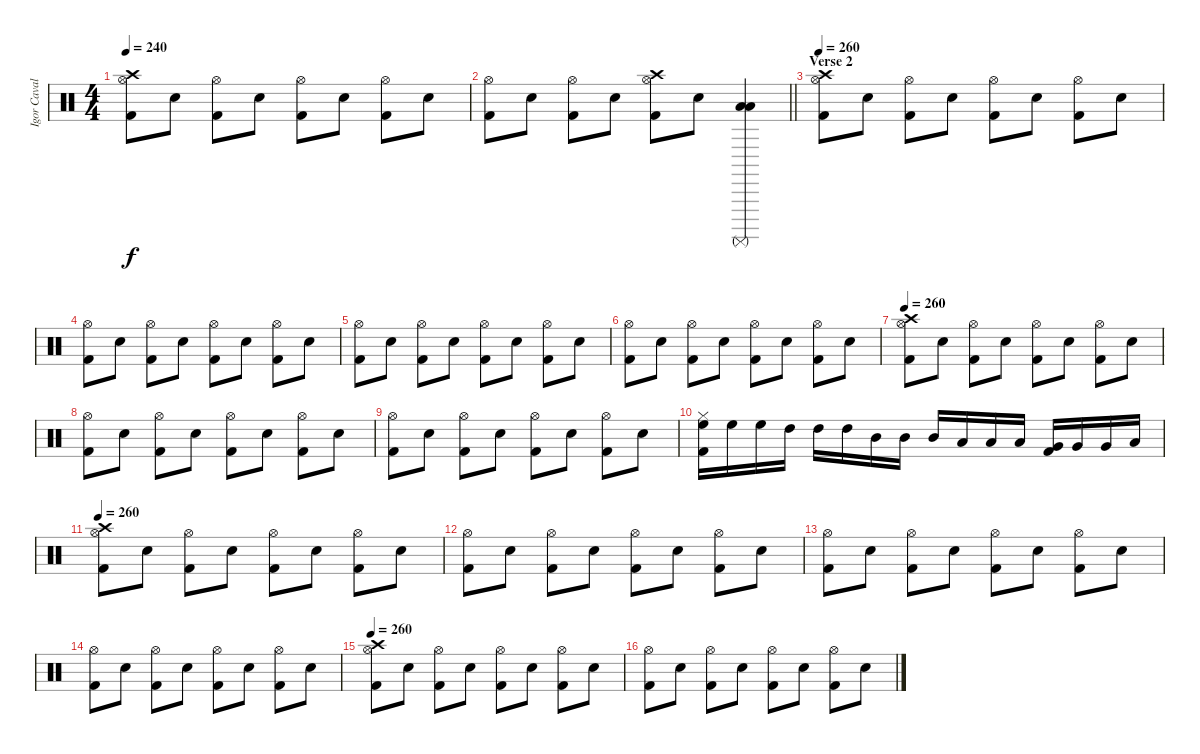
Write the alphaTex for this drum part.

\track ("Igor Cavalera" "Igor Caval") {instrument percussion}
\staff {score}
\articulation defaults
\ts (4 4)
\tempo 240
\clef neutral
\ks c
("Crash high (hit)" "Hi-Hat (open)" "Kick (hit) 2").8{dy f} "Electric Snare (hit)".8 ("Hi-Hat (open)" "Kick (hit) 2").8 "Electric Snare (hit)".8 ("Hi-Hat (open)" "Kick (hit) 2").8 "Electric Snare (hit)".8 ("Hi-Hat (open)" "Kick (hit) 2").8 "Electric Snare (hit)".8 |
\barLineRight lightlight
("Hi-Hat (open)" "Kick (hit) 2").8 "Electric Snare (hit)".8 ("Hi-Hat (open)" "Kick (hit) 2").8 "Electric Snare (hit)".8 ("Crash high (hit)" "Hi-Hat (open)" "Kick (hit) 2").8 "Electric Snare (hit)".8 ("Low Tom (hit)" "Surdo (mute)" "Low Floor Tom (hit)").4 |
\section ("" "Verse 2")
\tempo 260
("Crash high (hit)" "Hi-Hat (open)" "Kick (hit) 2").8 "Electric Snare (hit)".8 ("Hi-Hat (open)" "Kick (hit) 2").8 "Electric Snare (hit)".8 ("Hi-Hat (open)" "Kick (hit) 2").8 "Electric Snare (hit)".8 ("Hi-Hat (open)" "Kick (hit) 2").8 "Electric Snare (hit)".8 |
("Hi-Hat (open)" "Kick (hit) 2").8 "Electric Snare (hit)".8 ("Hi-Hat (open)" "Kick (hit) 2").8 "Electric Snare (hit)".8 ("Hi-Hat (open)" "Kick (hit) 2").8 "Electric Snare (hit)".8 ("Hi-Hat (open)" "Kick (hit) 2").8 "Electric Snare (hit)".8 |
("Hi-Hat (open)" "Kick (hit) 2").8 "Electric Snare (hit)".8 ("Hi-Hat (open)" "Kick (hit) 2").8 "Electric Snare (hit)".8 ("Hi-Hat (open)" "Kick (hit) 2").8 "Electric Snare (hit)".8 ("Hi-Hat (open)" "Kick (hit) 2").8 "Electric Snare (hit)".8 |
("Hi-Hat (open)" "Kick (hit) 2").8 "Electric Snare (hit)".8 ("Hi-Hat (open)" "Kick (hit) 2").8 "Electric Snare (hit)".8 ("Hi-Hat (open)" "Kick (hit) 2").8 "Electric Snare (hit)".8 ("Hi-Hat (open)" "Kick (hit) 2").8 "Electric Snare (hit)".8 |
\tempo 260
("Crash high (hit)" "Hi-Hat (open)" "Kick (hit) 2").8 "Electric Snare (hit)".8 ("Hi-Hat (open)" "Kick (hit) 2").8 "Electric Snare (hit)".8 ("Hi-Hat (open)" "Kick (hit) 2").8 "Electric Snare (hit)".8 ("Hi-Hat (open)" "Kick (hit) 2").8 "Electric Snare (hit)".8 |
("Hi-Hat (open)" "Kick (hit) 2").8 "Electric Snare (hit)".8 ("Hi-Hat (open)" "Kick (hit) 2").8 "Electric Snare (hit)".8 ("Hi-Hat (open)" "Kick (hit) 2").8 "Electric Snare (hit)".8 ("Hi-Hat (open)" "Kick (hit) 2").8 "Electric Snare (hit)".8 |
("Hi-Hat (open)" "Kick (hit) 2").8 "Electric Snare (hit)".8 ("Hi-Hat (open)" "Kick (hit) 2").8 "Electric Snare (hit)".8 ("Hi-Hat (open)" "Kick (hit) 2").8 "Electric Snare (hit)".8 ("Hi-Hat (open)" "Kick (hit) 2").8 "Electric Snare (hit)".8 |
("Hi-Hat (closed)" "High Floor Tom (hit)" "Kick (hit) 2").16 "High Floor Tom (hit)".16 "High Floor Tom (hit)".16 "High Tom (hit)".16 "High Tom (hit)".16 "High Tom (hit)".16 "Mid Tom (hit)".16 "Mid Tom (hit)".16 "Mid Tom (hit)".16 "Low Tom (hit)".16 "Low Tom (hit)".16 "Low Tom (hit)".16 ("Very Low Tom (hit)" "Kick (hit) 2").16 "Very Low Tom (hit)".16 "Very Low Tom (hit)".16 "Low Floor Tom (hit)".16 |
\tempo 260
("Crash high (hit)" "Hi-Hat (open)" "Kick (hit) 2").8 "Electric Snare (hit)".8 ("Hi-Hat (open)" "Kick (hit) 2").8 "Electric Snare (hit)".8 ("Hi-Hat (open)" "Kick (hit) 2").8 "Electric Snare (hit)".8 ("Hi-Hat (open)" "Kick (hit) 2").8 "Electric Snare (hit)".8 |
("Hi-Hat (open)" "Kick (hit) 2").8 "Electric Snare (hit)".8 ("Hi-Hat (open)" "Kick (hit) 2").8 "Electric Snare (hit)".8 ("Hi-Hat (open)" "Kick (hit) 2").8 "Electric Snare (hit)".8 ("Hi-Hat (open)" "Kick (hit) 2").8 "Electric Snare (hit)".8 |
("Hi-Hat (open)" "Kick (hit) 2").8 "Electric Snare (hit)".8 ("Hi-Hat (open)" "Kick (hit) 2").8 "Electric Snare (hit)".8 ("Hi-Hat (open)" "Kick (hit) 2").8 "Electric Snare (hit)".8 ("Hi-Hat (open)" "Kick (hit) 2").8 "Electric Snare (hit)".8 |
("Hi-Hat (open)" "Kick (hit) 2").8 "Electric Snare (hit)".8 ("Hi-Hat (open)" "Kick (hit) 2").8 "Electric Snare (hit)".8 ("Hi-Hat (open)" "Kick (hit) 2").8 "Electric Snare (hit)".8 ("Hi-Hat (open)" "Kick (hit) 2").8 "Electric Snare (hit)".8 |
\tempo 260
("Crash high (hit)" "Hi-Hat (open)" "Kick (hit) 2").8 "Electric Snare (hit)".8 ("Hi-Hat (open)" "Kick (hit) 2").8 "Electric Snare (hit)".8 ("Hi-Hat (open)" "Kick (hit) 2").8 "Electric Snare (hit)".8 ("Hi-Hat (open)" "Kick (hit) 2").8 "Electric Snare (hit)".8 |
("Hi-Hat (open)" "Kick (hit) 2").8 "Electric Snare (hit)".8 ("Hi-Hat (open)" "Kick (hit) 2").8 "Electric Snare (hit)".8 ("Hi-Hat (open)" "Kick (hit) 2").8 "Electric Snare (hit)".8 ("Hi-Hat (open)" "Kick (hit) 2").8 "Electric Snare (hit)".8
